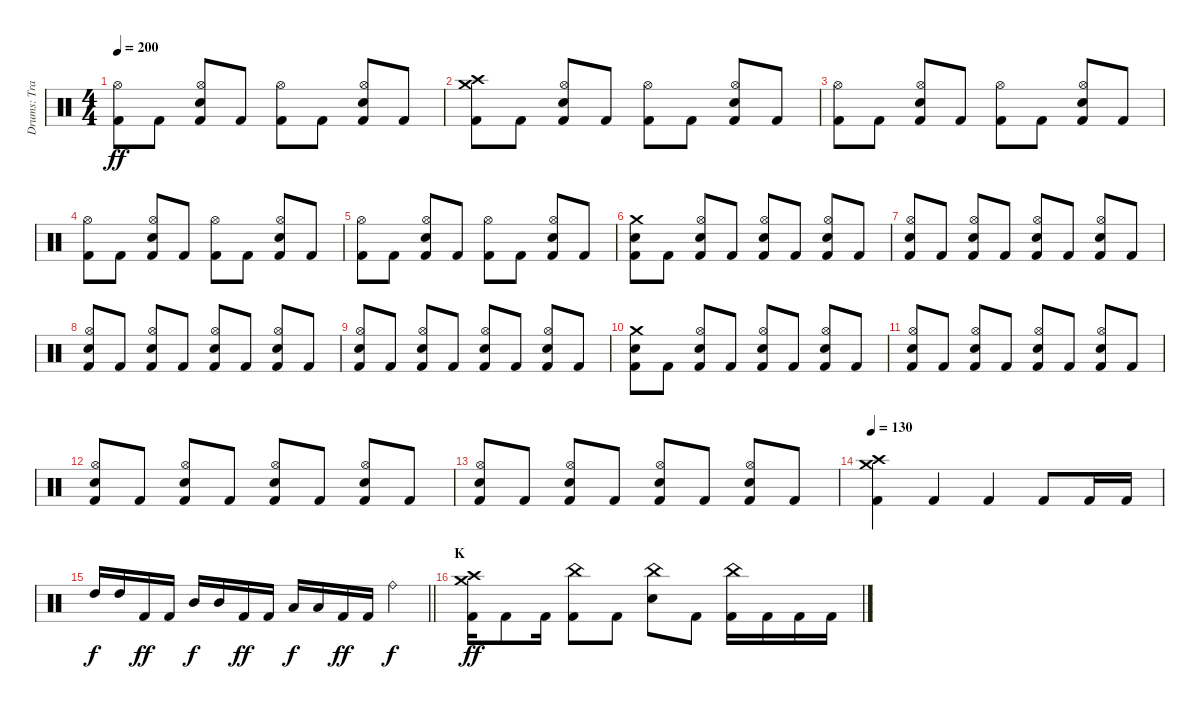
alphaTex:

\track ("Drums: Travis Clarke" "Drums: Tra") {instrument percussion}
\staff {score}
\articulation defaults
\ts (4 4)
\tempo 200
\clef neutral
\ks c
("Kick (hit) 2" "Hi-Hat (open)").8{dy ff} "Kick (hit) 2".8 ("Kick (hit) 2" "Snare (hit) 2" "Hi-Hat (open)").8 "Kick (hit) 2".8 ("Kick (hit) 2" "Hi-Hat (open)").8 "Kick (hit) 2".8 ("Kick (hit) 2" "Snare (hit) 2" "Hi-Hat (open)").8 "Kick (hit) 2".8 |
("Kick (hit) 2" "Crash high (hit)" "Crash medium (hit)").8 "Kick (hit) 2".8 ("Kick (hit) 2" "Snare (hit) 2" "Hi-Hat (open)").8 "Kick (hit) 2".8 ("Kick (hit) 2" "Hi-Hat (open)").8 "Kick (hit) 2".8 ("Kick (hit) 2" "Snare (hit) 2" "Hi-Hat (open)").8 "Kick (hit) 2".8 |
("Kick (hit) 2" "Hi-Hat (open)").8 "Kick (hit) 2".8 ("Kick (hit) 2" "Snare (hit) 2" "Hi-Hat (open)").8 "Kick (hit) 2".8 ("Kick (hit) 2" "Hi-Hat (open)").8 "Kick (hit) 2".8 ("Kick (hit) 2" "Snare (hit) 2" "Hi-Hat (open)").8 "Kick (hit) 2".8 |
("Kick (hit) 2" "Hi-Hat (open)").8 "Kick (hit) 2".8 ("Kick (hit) 2" "Snare (hit) 2" "Hi-Hat (open)").8 "Kick (hit) 2".8 ("Kick (hit) 2" "Hi-Hat (open)").8 "Kick (hit) 2".8 ("Kick (hit) 2" "Snare (hit) 2" "Hi-Hat (open)").8 "Kick (hit) 2".8 |
("Kick (hit) 2" "Hi-Hat (open)").8 "Kick (hit) 2".8 ("Kick (hit) 2" "Snare (hit) 2" "Hi-Hat (open)").8 "Kick (hit) 2".8 ("Kick (hit) 2" "Hi-Hat (open)").8 "Kick (hit) 2".8 ("Kick (hit) 2" "Snare (hit) 2" "Hi-Hat (open)").8 "Kick (hit) 2".8 |
("Kick (hit) 2" "Snare (hit) 2" "Crash medium (hit)").8 "Kick (hit) 2".8 ("Kick (hit) 2" "Snare (hit) 2" "Hi-Hat (open)").8 "Kick (hit) 2".8 ("Kick (hit) 2" "Snare (hit) 2" "Hi-Hat (open)").8 "Kick (hit) 2".8 ("Kick (hit) 2" "Snare (hit) 2" "Hi-Hat (open)").8 "Kick (hit) 2".8 |
("Kick (hit) 2" "Snare (hit) 2" "Hi-Hat (open)").8 "Kick (hit) 2".8 ("Kick (hit) 2" "Snare (hit) 2" "Hi-Hat (open)").8 "Kick (hit) 2".8 ("Kick (hit) 2" "Snare (hit) 2" "Hi-Hat (open)").8 "Kick (hit) 2".8 ("Kick (hit) 2" "Snare (hit) 2" "Hi-Hat (open)").8 "Kick (hit) 2".8 |
("Kick (hit) 2" "Snare (hit) 2" "Hi-Hat (open)").8 "Kick (hit) 2".8 ("Kick (hit) 2" "Snare (hit) 2" "Hi-Hat (open)").8 "Kick (hit) 2".8 ("Kick (hit) 2" "Snare (hit) 2" "Hi-Hat (open)").8 "Kick (hit) 2".8 ("Kick (hit) 2" "Snare (hit) 2" "Hi-Hat (open)").8 "Kick (hit) 2".8 |
("Kick (hit) 2" "Snare (hit) 2" "Hi-Hat (open)").8 "Kick (hit) 2".8 ("Kick (hit) 2" "Snare (hit) 2" "Hi-Hat (open)").8 "Kick (hit) 2".8 ("Kick (hit) 2" "Snare (hit) 2" "Hi-Hat (open)").8 "Kick (hit) 2".8 ("Kick (hit) 2" "Snare (hit) 2" "Hi-Hat (open)").8 "Kick (hit) 2".8 |
("Kick (hit) 2" "Snare (hit) 2" "Crash medium (hit)").8 "Kick (hit) 2".8 ("Kick (hit) 2" "Snare (hit) 2" "Hi-Hat (open)").8 "Kick (hit) 2".8 ("Kick (hit) 2" "Snare (hit) 2" "Hi-Hat (open)").8 "Kick (hit) 2".8 ("Kick (hit) 2" "Snare (hit) 2" "Hi-Hat (open)").8 "Kick (hit) 2".8 |
("Kick (hit) 2" "Snare (hit) 2" "Hi-Hat (open)").8 "Kick (hit) 2".8 ("Kick (hit) 2" "Snare (hit) 2" "Hi-Hat (open)").8 "Kick (hit) 2".8 ("Kick (hit) 2" "Snare (hit) 2" "Hi-Hat (open)").8 "Kick (hit) 2".8 ("Kick (hit) 2" "Snare (hit) 2" "Hi-Hat (open)").8 "Kick (hit) 2".8 |
("Kick (hit) 2" "Snare (hit) 2" "Hi-Hat (open)").8 "Kick (hit) 2".8 ("Kick (hit) 2" "Snare (hit) 2" "Hi-Hat (open)").8 "Kick (hit) 2".8 ("Kick (hit) 2" "Snare (hit) 2" "Hi-Hat (open)").8 "Kick (hit) 2".8 ("Kick (hit) 2" "Snare (hit) 2" "Hi-Hat (open)").8 "Kick (hit) 2".8 |
("Kick (hit) 2" "Snare (hit) 2" "Hi-Hat (open)").8 "Kick (hit) 2".8 ("Kick (hit) 2" "Snare (hit) 2" "Hi-Hat (open)").8 "Kick (hit) 2".8 ("Kick (hit) 2" "Snare (hit) 2" "Hi-Hat (open)").8 "Kick (hit) 2".8 ("Kick (hit) 2" "Snare (hit) 2" "Hi-Hat (open)").8 "Kick (hit) 2".8 |
\tempo 130
("Kick (hit) 2" "Crash high (hit)" "Crash medium (hit)").4 "Kick (hit) 2".4 "Kick (hit) 2".4 "Kick (hit) 2".8 "Kick (hit) 2".16 "Kick (hit) 2".16 |
\barLineRight lightlight "High Tom (hit)".16{dy f} "High Tom (hit)".16 "Kick (hit) 2".16{dy ff} "Kick (hit) 2".16 "Mid Tom (hit)".16{dy f} "Mid Tom (hit)".16 "Kick (hit) 2".16{dy ff} "Kick (hit) 2".16 "Low Tom (hit)".16{dy f} "Low Tom (hit)".16 "Kick (hit) 2".16{dy ff} "Kick (hit) 2".16 "Ride (bell)".4{dy f}
|
\section ("" "K")
("Kick (hit) 2" "Crash high (hit)" "Crash medium (hit)").16{dy ff} "Kick (hit) 2".8 "Kick (hit) 2".16 ("Kick (hit) 2" "China (hit)").8 "Kick (hit) 2".8 ("Snare (hit) 2" "China (hit)").8 "Kick (hit) 2".8 ("Kick (hit) 2" "China (hit)").16 "Kick (hit) 2".16 "Kick (hit) 2".16 "Kick (hit) 2".16
